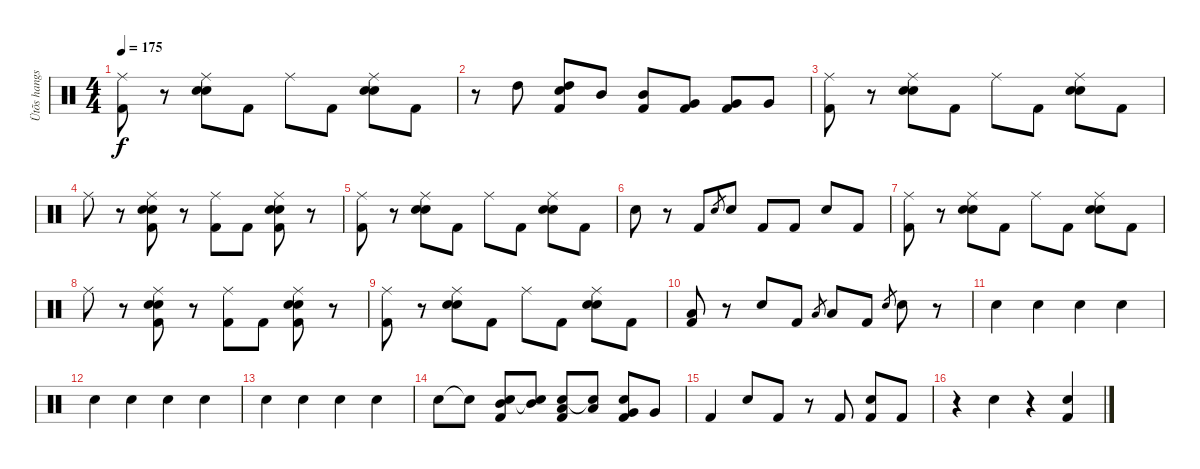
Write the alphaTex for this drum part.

\track ("Ütõs hangszer" "Ütõs hangs") {instrument percussion}
\staff {score}
\articulation defaults
\ts (4 4)
\tempo 175
\clef neutral
\ks c
("Ride (middle)" "Kick (hit) 2").8{dy f} r.8 ("Hand Clap (hit)" "Ride (middle)" "Snare (hit) 2").8 "Kick (hit) 2".8 "Ride (middle)".8 "Kick (hit) 2".8 ("Hand Clap (hit)" "Ride (middle)" "Snare (hit) 2").8 "Kick (hit) 2".8 |
r.8 "High Tom (hit)".8 ("High Tom (hit)" "Snare (hit) 2" "Kick (hit) 2").8 "Mid Tom (hit)".8 ("Mid Tom (hit)" "Kick (hit) 2").8 ("Very Low Tom (hit)" "Kick (hit) 2").8 ("Very Low Tom (hit)" "Kick (hit) 2").8 "Very Low Tom (hit)".8 |
("Ride (middle)" "Kick (hit) 2").8 r.8 ("Hand Clap (hit)" "Ride (middle)" "Snare (hit) 2").8 "Kick (hit) 2".8 "Ride (middle)".8 "Kick (hit) 2".8 ("Hand Clap (hit)" "Ride (middle)" "Snare (hit) 2").8 "Kick (hit) 2".8 |
"Ride (middle)".8 r.8 ("Hand Clap (hit)" "Ride (middle)" "Snare (hit) 2" "Kick (hit) 2").8 r.8 ("Ride (middle)" "Kick (hit) 2").8 "Kick (hit) 2".8 ("Hand Clap (hit)" "Ride (middle)" "Snare (hit) 2" "Kick (hit) 2").8 r.8 |
("Ride (middle)" "Kick (hit) 2").8 r.8 ("Hand Clap (hit)" "Ride (middle)" "Snare (hit) 2").8 "Kick (hit) 2".8 "Ride (middle)".8 "Kick (hit) 2".8 ("Hand Clap (hit)" "Ride (middle)" "Snare (hit) 2").8 "Kick (hit) 2".8 |
"Snare (hit) 2".8 r.8 "Kick (hit) 2".8 "Snare (hit) 2".8{gr} "Snare (hit) 2".8 "Kick (hit) 2".8 "Kick (hit) 2".8 "Snare (hit) 2".8 "Kick (hit) 2".8 |
("Ride (middle)" "Kick (hit) 2").8 r.8 ("Hand Clap (hit)" "Ride (middle)" "Snare (hit) 2").8 "Kick (hit) 2".8 "Ride (middle)".8 "Kick (hit) 2".8 ("Hand Clap (hit)" "Ride (middle)" "Snare (hit) 2").8 "Kick (hit) 2".8 |
"Ride (middle)".8 r.8 ("Hand Clap (hit)" "Ride (middle)" "Snare (hit) 2" "Kick (hit) 2").8 r.8 ("Ride (middle)" "Kick (hit) 2").8 "Kick (hit) 2".8 ("Hand Clap (hit)" "Ride (middle)" "Snare (hit) 2" "Kick (hit) 2").8 r.8 |
("Ride (middle)" "Kick (hit) 2").8 r.8 ("Hand Clap (hit)" "Ride (middle)" "Snare (hit) 2").8 "Kick (hit) 2".8 "Ride (middle)".8 "Kick (hit) 2".8 ("Hand Clap (hit)" "Ride (middle)" "Snare (hit) 2").8 "Kick (hit) 2".8 |
("Low Floor Tom (hit)" "Kick (hit) 2").8 r.8 "Snare (hit) 2".8 "Kick (hit) 2".8 "Low Floor Tom (hit)".8{gr} "Low Floor Tom (hit)".8 "Kick (hit) 2".8 "Snare (hit) 2".8{gr} "Snare (hit) 2".8 r.8 |
"Hand Clap (hit)".4 "Hand Clap (hit)".4 "Hand Clap (hit)".4 "Hand Clap (hit)".4 |
"Hand Clap (hit)".4 "Hand Clap (hit)".4 "Hand Clap (hit)".4 "Hand Clap (hit)".4 |
"Hand Clap (hit)".4 "Hand Clap (hit)".4 "Hand Clap (hit)".4 "Hand Clap (hit)".4 |
"Hand Clap (hit)".8 "Hand Clap (hit)"{t}.8 ("Mid Tom (hit)" "Hand Clap (hit)" "Kick (hit) 2").8 ("Mid Tom (hit)" "Hand Clap (hit)"{t}).8 ("Low Tom (hit)" "Hand Clap (hit)" "Kick (hit) 2").8 ("Low Tom (hit)" "Hand Clap (hit)"{t}).8 ("Very Low Tom (hit)" "Hand Clap (hit)" "Kick (hit) 2").8 "Very Low Tom (hit)".8 |
"Kick (hit) 2".4 "Snare (hit) 2".8 "Kick (hit) 2".8 r.8 "Kick (hit) 2".8 ("Snare (hit) 2" "Kick (hit) 2").8 "Kick (hit) 2".8 |
r.4 "Snare (hit) 2".4 r.4 ("Snare (hit) 2" "Kick (hit) 2").4
